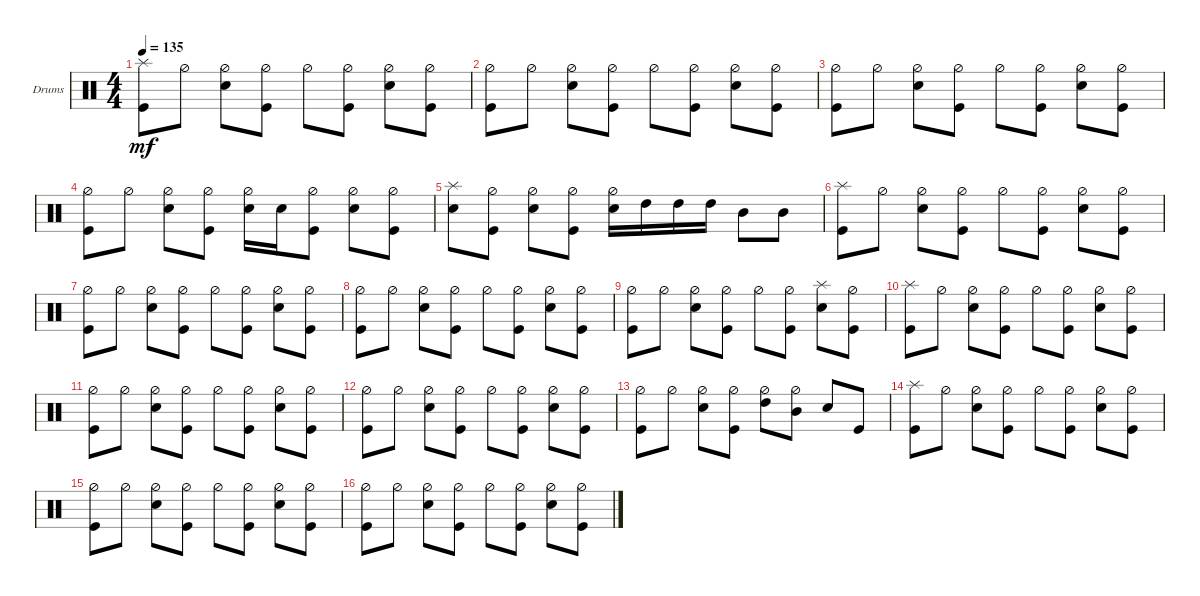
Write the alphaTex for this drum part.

\defaultSystemsLayout 4
\bracketExtendMode groupsimilarinstruments
\firstSystemTrackNameOrientation horizontal
\otherSystemsTrackNameOrientation horizontal
\track ("Drumkit" "Drums") {instrument percussion}
\staff {score}
\articulation defaults
\ts (4 4)
\tempo 135
\clef neutral
\ks c
("Kick (hit)" "Splash (hit)").8{dy mf} "Hi-Hat (half)".8 ("Snare (hit) 2" "Hi-Hat (half)").8 ("Kick (hit)" "Hi-Hat (half)").8 "Hi-Hat (half)".8 ("Kick (hit)" "Hi-Hat (half)").8 ("Snare (hit) 2" "Hi-Hat (half)").8 ("Kick (hit)" "Hi-Hat (half)").8 |
("Kick (hit)" "Hi-Hat (half)").8 "Hi-Hat (half)".8 ("Snare (hit) 2" "Hi-Hat (half)").8 ("Kick (hit)" "Hi-Hat (half)").8 "Hi-Hat (half)".8 ("Kick (hit)" "Hi-Hat (half)").8 ("Snare (hit) 2" "Hi-Hat (half)").8 ("Kick (hit)" "Hi-Hat (half)").8 |
("Kick (hit)" "Hi-Hat (half)").8 "Hi-Hat (half)".8 ("Snare (hit) 2" "Hi-Hat (half)").8 ("Kick (hit)" "Hi-Hat (half)").8 "Hi-Hat (half)".8 ("Kick (hit)" "Hi-Hat (half)").8 ("Snare (hit) 2" "Hi-Hat (half)").8 ("Kick (hit)" "Hi-Hat (half)").8 |
("Kick (hit)" "Hi-Hat (half)").8 "Hi-Hat (half)".8 ("Snare (hit) 2" "Hi-Hat (half)").8 ("Kick (hit)" "Hi-Hat (half)").8 ("Hi-Hat (half)" "Snare (hit) 2").16 "Snare (hit) 2".16 ("Kick (hit)" "Hi-Hat (half)").8 ("Snare (hit) 2" "Hi-Hat (half)").8 ("Kick (hit)" "Hi-Hat (half)").8 |
("Snare (hit) 2" "Splash (hit)").8 ("Kick (hit)" "Hi-Hat (half)").8 ("Snare (hit) 2" "Hi-Hat (half)").8 ("Kick (hit)" "Hi-Hat (half)").8 ("Snare (hit) 2" "Hi-Hat (half)").16 "High Tom (hit)".16 "High Tom (hit)".16 "High Tom (hit)".16 "Mid Tom (hit)".8 "Mid Tom (hit)".8 |
("Kick (hit)" "Splash (hit)").8 "Hi-Hat (half)".8 ("Snare (hit) 2" "Hi-Hat (half)").8 ("Kick (hit)" "Hi-Hat (half)").8 "Hi-Hat (half)".8 ("Kick (hit)" "Hi-Hat (half)").8 ("Snare (hit) 2" "Hi-Hat (half)").8 ("Kick (hit)" "Hi-Hat (half)").8 |
("Kick (hit)" "Hi-Hat (half)").8 "Hi-Hat (half)".8 ("Snare (hit) 2" "Hi-Hat (half)").8 ("Kick (hit)" "Hi-Hat (half)").8 "Hi-Hat (half)".8 ("Kick (hit)" "Hi-Hat (half)").8 ("Snare (hit) 2" "Hi-Hat (half)").8 ("Kick (hit)" "Hi-Hat (half)").8 |
("Kick (hit)" "Hi-Hat (half)").8 "Hi-Hat (half)".8 ("Snare (hit) 2" "Hi-Hat (half)").8 ("Kick (hit)" "Hi-Hat (half)").8 "Hi-Hat (half)".8 ("Kick (hit)" "Hi-Hat (half)").8 ("Snare (hit) 2" "Hi-Hat (half)").8 ("Kick (hit)" "Hi-Hat (half)").8 |
("Kick (hit)" "Hi-Hat (half)").8 "Hi-Hat (half)".8 ("Snare (hit) 2" "Hi-Hat (half)").8 ("Kick (hit)" "Hi-Hat (half)").8 "Hi-Hat (half)".8 ("Kick (hit)" "Hi-Hat (half)").8 ("Snare (hit) 2" "Splash (hit)").8 ("Kick (hit)" "Hi-Hat (half)").8 |
("Kick (hit)" "Splash (hit)").8 "Hi-Hat (half)".8 ("Snare (hit) 2" "Hi-Hat (half)").8 ("Kick (hit)" "Hi-Hat (half)").8 "Hi-Hat (half)".8 ("Kick (hit)" "Hi-Hat (half)").8 ("Snare (hit) 2" "Hi-Hat (half)").8 ("Kick (hit)" "Hi-Hat (half)").8 |
("Kick (hit)" "Hi-Hat (half)").8 "Hi-Hat (half)".8 ("Snare (hit) 2" "Hi-Hat (half)").8 ("Kick (hit)" "Hi-Hat (half)").8 "Hi-Hat (half)".8 ("Kick (hit)" "Hi-Hat (half)").8 ("Snare (hit) 2" "Hi-Hat (half)").8 ("Kick (hit)" "Hi-Hat (half)").8 |
("Kick (hit)" "Hi-Hat (half)").8 "Hi-Hat (half)".8 ("Snare (hit) 2" "Hi-Hat (half)").8 ("Kick (hit)" "Hi-Hat (half)").8 "Hi-Hat (half)".8 ("Kick (hit)" "Hi-Hat (half)").8 ("Snare (hit) 2" "Hi-Hat (half)").8 ("Kick (hit)" "Hi-Hat (half)").8 |
("Kick (hit)" "Hi-Hat (half)").8 "Hi-Hat (half)".8 ("Snare (hit) 2" "Hi-Hat (half)").8 ("Kick (hit)" "Hi-Hat (half)").8 ("Hi-Hat (half)" "High Tom (hit)").8 ("Hi-Hat (half)" "Mid Tom (hit)").8 "Snare (hit) 2".8 "Kick (hit)".8 |
("Kick (hit)" "Splash (hit)").8 "Hi-Hat (half)".8 ("Snare (hit) 2" "Hi-Hat (half)").8 ("Kick (hit)" "Hi-Hat (half)").8 "Hi-Hat (half)".8 ("Kick (hit)" "Hi-Hat (half)").8 ("Snare (hit) 2" "Hi-Hat (half)").8 ("Kick (hit)" "Hi-Hat (half)").8 |
("Kick (hit)" "Hi-Hat (half)").8 "Hi-Hat (half)".8 ("Snare (hit) 2" "Hi-Hat (half)").8 ("Kick (hit)" "Hi-Hat (half)").8 "Hi-Hat (half)".8 ("Kick (hit)" "Hi-Hat (half)").8 ("Snare (hit) 2" "Hi-Hat (half)").8 ("Kick (hit)" "Hi-Hat (half)").8 |
("Kick (hit)" "Hi-Hat (half)").8 "Hi-Hat (half)".8 ("Snare (hit) 2" "Hi-Hat (half)").8 ("Kick (hit)" "Hi-Hat (half)").8 "Hi-Hat (half)".8 ("Kick (hit)" "Hi-Hat (half)").8 ("Snare (hit) 2" "Hi-Hat (half)").8 ("Kick (hit)" "Hi-Hat (half)").8
